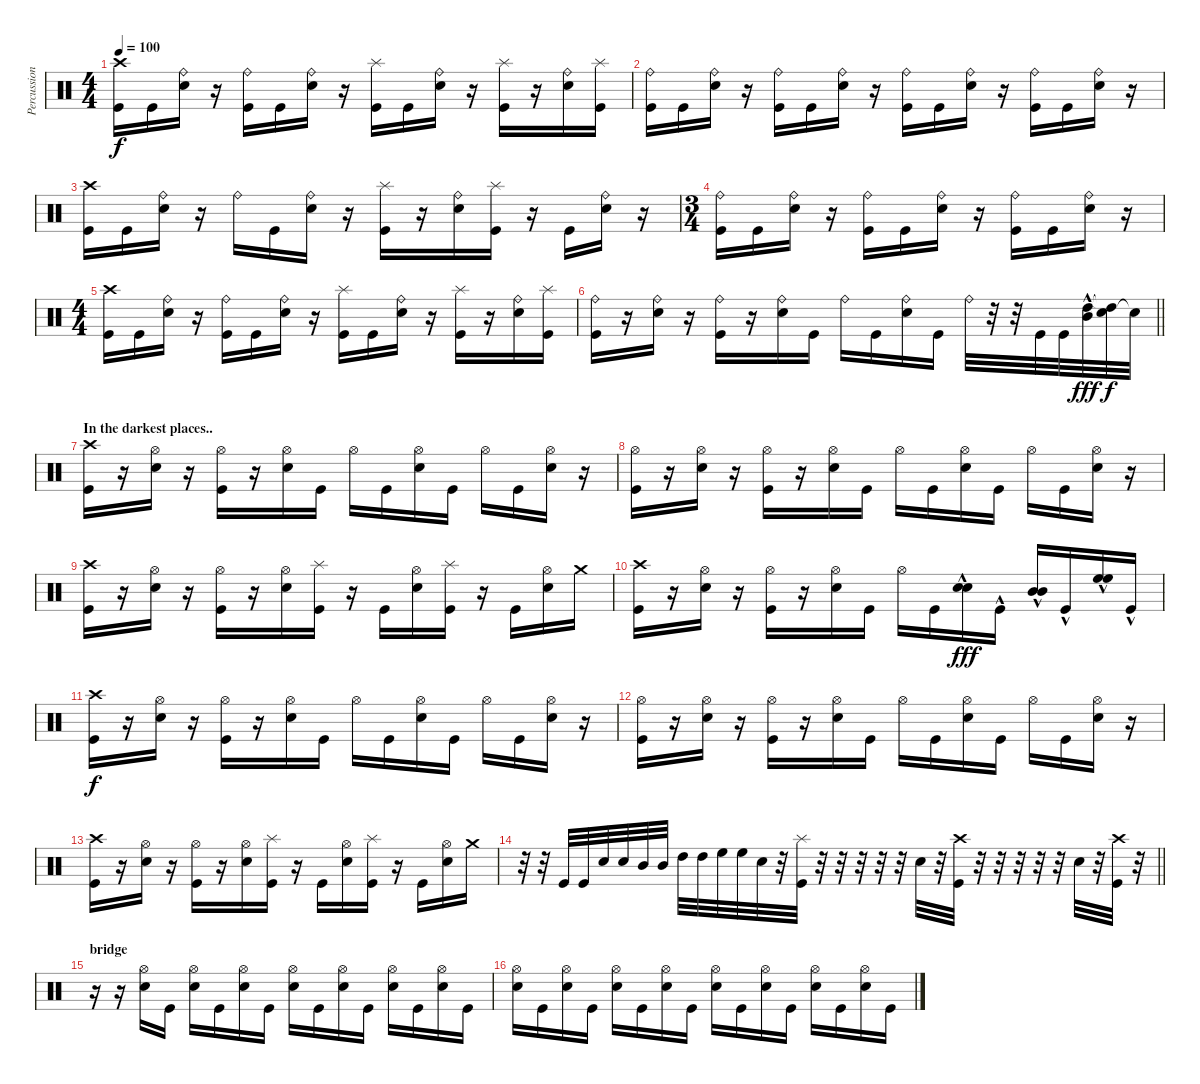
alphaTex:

\track ("Percussion" "Percussion") {instrument percussion}
\staff {score}
\articulation defaults
\ts (4 4)
\tempo 100
\clef neutral
\ks c
("Crash high (hit)" "Kick (hit)").16{dy f} "Kick (hit)".16 ("Ride (bell)" "Snare (hit) 2").16 r.16 ("Ride (bell)" "Kick (hit)").16 "Kick (hit)".16 ("Ride (bell)" "Snare (hit) 2").16 r.16 ("Splash (hit)" "Kick (hit)").16 "Kick (hit)".16 ("Ride (bell)" "Snare (hit) 2").16 r.16 ("Splash (hit)" "Kick (hit)").16 r.16 ("Ride (bell)" "Snare (hit) 2").16 ("Splash (hit)" "Kick (hit)").16 |
("Ride (bell)" "Kick (hit)").16 "Kick (hit)".16 ("Ride (bell)" "Snare (hit) 2").16 r.16 ("Ride (bell)" "Kick (hit)").16 "Kick (hit)".16 ("Ride (bell)" "Snare (hit) 2").16 r.16 ("Ride (bell)" "Kick (hit)").16 "Kick (hit)".16 ("Ride (bell)" "Snare (hit) 2").16 r.16 ("Ride (bell)" "Kick (hit)").16 "Kick (hit)".16 ("Ride (bell)" "Snare (hit) 2").16 r.16 |
("Crash high (hit)" "Kick (hit)").16 "Kick (hit)".16 ("Ride (bell)" "Snare (hit) 2").16 r.16 "Ride (bell)".16 "Kick (hit)".16 ("Ride (bell)" "Snare (hit) 2").16 r.16 ("Splash (hit)" "Kick (hit)").16 r.16 ("Ride (bell)" "Snare (hit) 2").16 ("Splash (hit)" "Kick (hit)").16 r.16 "Kick (hit)".16 ("Ride (bell)" "Snare (hit) 2").16 r.16 |
\ts (3 4)
("Ride (bell)" "Kick (hit)").16 "Kick (hit)".16 ("Ride (bell)" "Snare (hit) 2").16 r.16 ("Ride (bell)" "Kick (hit)").16 "Kick (hit)".16 ("Ride (bell)" "Snare (hit) 2").16 r.16 ("Ride (bell)" "Kick (hit)").16 "Kick (hit)".16 ("Ride (bell)" "Snare (hit) 2").16 r.16 |
\ts (4 4)
("Crash high (hit)" "Kick (hit)").16 "Kick (hit)".16 ("Ride (bell)" "Snare (hit) 2").16 r.16 ("Ride (bell)" "Kick (hit)").16 "Kick (hit)".16 ("Ride (bell)" "Snare (hit) 2").16 r.16 ("Splash (hit)" "Kick (hit)").16 "Kick (hit)".16 ("Ride (bell)" "Snare (hit) 2").16 r.16 ("Splash (hit)" "Kick (hit)").16 r.16 ("Ride (bell)" "Snare (hit) 2").16 ("Splash (hit)" "Kick (hit)").16 |
\barLineRight lightlight
("Ride (bell)" "Kick (hit)").16 r.16 ("Ride (bell)" "Snare (hit) 2").16 r.16 ("Ride (bell)" "Kick (hit)").16 r.16 ("Ride (bell)" "Snare (hit) 2").16 "Kick (hit)".16 "Ride (bell)".16 "Kick (hit)".16 ("Ride (bell)" "Snare (hit) 2").16 "Kick (hit)".16 "Ride (bell)".32 r.32 r.32 "Kick (hit)".32 "Kick (hit)".32 ("Mid Tom (hit)"{hac} "High Tom (hit)"{hac}).32{dy fff} ("Snare (hit)"{t} "High Tom (hit)"{t}).32{dy f} "Snare (hit)"{t}.32 |
\section ("" "In the darkest places..")
("Crash high (hit)" "Kick (hit)").16 r.16 ("Hi-Hat (open)" "Snare (hit) 2").16 r.16 ("Hi-Hat (open)" "Kick (hit)").16 r.16 ("Hi-Hat (open)" "Snare (hit) 2").16 "Kick (hit)".16 "Hi-Hat (open)".16 "Kick (hit)".16 ("Hi-Hat (open)" "Snare (hit) 2").16 "Kick (hit)".16 "Hi-Hat (open)".16 "Kick (hit)".16 ("Hi-Hat (open)" "Snare (hit) 2").16 r.16 |
("Hi-Hat (open)" "Kick (hit)").16 r.16 ("Hi-Hat (open)" "Snare (hit) 2").16 r.16 ("Hi-Hat (open)" "Kick (hit)").16 r.16 ("Hi-Hat (open)" "Snare (hit) 2").16 "Kick (hit)".16 "Hi-Hat (open)".16 "Kick (hit)".16 ("Hi-Hat (open)" "Snare (hit) 2").16 "Kick (hit)".16 "Hi-Hat (open)".16 "Kick (hit)".16 ("Hi-Hat (open)" "Snare (hit) 2").16 r.16 |
("Crash high (hit)" "Kick (hit)").16 r.16 ("Hi-Hat (open)" "Snare (hit) 2").16 r.16 ("Hi-Hat (open)" "Kick (hit)").16 r.16 ("Hi-Hat (open)" "Snare (hit) 2").16 ("Splash (hit)" "Kick (hit)").16 r.16 "Kick (hit)".16 ("Hi-Hat (open)" "Snare (hit) 2").16 ("Splash (hit)" "Kick (hit)").16 r.16 "Kick (hit)".16 ("Hi-Hat (open)" "Snare (hit) 2").16 "Crash medium (hit)".16 |
("Crash high (hit)" "Kick (hit)").16 r.16 ("Hi-Hat (open)" "Snare (hit) 2").16 r.16 ("Hi-Hat (open)" "Kick (hit)").16 r.16 ("Hi-Hat (open)" "Snare (hit) 2").16 "Kick (hit)".16 "Hi-Hat (open)".16 "Kick (hit)".16 ("Snare (hit) 2"{hac} "Snare (hit) 2").16{dy fff} "Kick (hit)"{hac}.16 ("Mid Tom (hit)"{hac} "Mid Tom (hit)"{hac}).16 "Kick (hit)"{hac}.16 ("High Floor Tom (hit)"{hac} "High Floor Tom (hit)"{hac}).16 "Kick (hit)"{hac}.16 |
("Crash high (hit)" "Kick (hit)").16{dy f} r.16 ("Hi-Hat (open)" "Snare (hit) 2").16 r.16 ("Hi-Hat (open)" "Kick (hit)").16 r.16 ("Hi-Hat (open)" "Snare (hit) 2").16 "Kick (hit)".16 "Hi-Hat (open)".16 "Kick (hit)".16 ("Hi-Hat (open)" "Snare (hit) 2").16 "Kick (hit)".16 "Hi-Hat (open)".16 "Kick (hit)".16 ("Hi-Hat (open)" "Snare (hit) 2").16 r.16 |
("Hi-Hat (open)" "Kick (hit)").16 r.16 ("Hi-Hat (open)" "Snare (hit) 2").16 r.16 ("Hi-Hat (open)" "Kick (hit)").16 r.16 ("Hi-Hat (open)" "Snare (hit) 2").16 "Kick (hit)".16 "Hi-Hat (open)".16 "Kick (hit)".16 ("Hi-Hat (open)" "Snare (hit) 2").16 "Kick (hit)".16 "Hi-Hat (open)".16 "Kick (hit)".16 ("Hi-Hat (open)" "Snare (hit) 2").16 r.16 |
("Crash high (hit)" "Kick (hit)").16 r.16 ("Hi-Hat (open)" "Snare (hit) 2").16 r.16 ("Hi-Hat (open)" "Kick (hit)").16 r.16 ("Hi-Hat (open)" "Snare (hit) 2").16 ("Splash (hit)" "Kick (hit)").16 r.16 "Kick (hit)".16 ("Hi-Hat (open)" "Snare (hit) 2").16 ("Splash (hit)" "Kick (hit)").16 r.16 "Kick (hit)".16 ("Hi-Hat (open)" "Snare (hit) 2").16 "Crash medium (hit)".16 |
\barLineRight lightlight
r.32 r.32 "Kick (hit)".32 "Kick (hit)".32 "Snare (hit) 2".32 "Snare (hit) 2".32 "Mid Tom (hit)".32 "Mid Tom (hit)".32 "High Tom (hit)".32 "High Tom (hit)".32 "High Floor Tom (hit)".32 "High Floor Tom (hit)".32 "Snare (hit) 2".32 r.32 ("Splash (hit)" "Kick (hit)").32 r.32 r.32 r.32 r.32 r.32 "Snare (hit) 2".32 r.32 ("Crash high (hit)" "Kick (hit)").32 r.32 r.32 r.32 r.32 r.32 "Snare (hit) 2".32 r.32 ("Crash high (hit)" "Kick (hit)").32 r.32 |
\section ("" "bridge")
r.16 r.16 ("Hi-Hat (open)" "Snare (hit) 2").16 "Kick (hit)".16 ("Hi-Hat (open)" "Snare (hit) 2").16 "Kick (hit)".16 ("Hi-Hat (open)" "Snare (hit) 2").16 "Kick (hit)".16 ("Hi-Hat (open)" "Snare (hit) 2").16 "Kick (hit)".16 ("Hi-Hat (open)" "Snare (hit) 2").16 "Kick (hit)".16 ("Hi-Hat (open)" "Snare (hit) 2").16 "Kick (hit)".16 ("Hi-Hat (open)" "Snare (hit) 2").16 "Kick (hit)".16 |
("Hi-Hat (open)" "Snare (hit) 2").16 "Kick (hit)".16 ("Hi-Hat (open)" "Snare (hit) 2").16 "Kick (hit)".16 ("Hi-Hat (open)" "Snare (hit) 2").16 "Kick (hit)".16 ("Hi-Hat (open)" "Snare (hit) 2").16 "Kick (hit)".16 ("Hi-Hat (open)" "Snare (hit) 2").16 "Kick (hit)".16 ("Hi-Hat (open)" "Snare (hit) 2").16 "Kick (hit)".16 ("Hi-Hat (open)" "Snare (hit) 2").16 "Kick (hit)".16 ("Hi-Hat (open)" "Snare (hit) 2").16 "Kick (hit)".16
